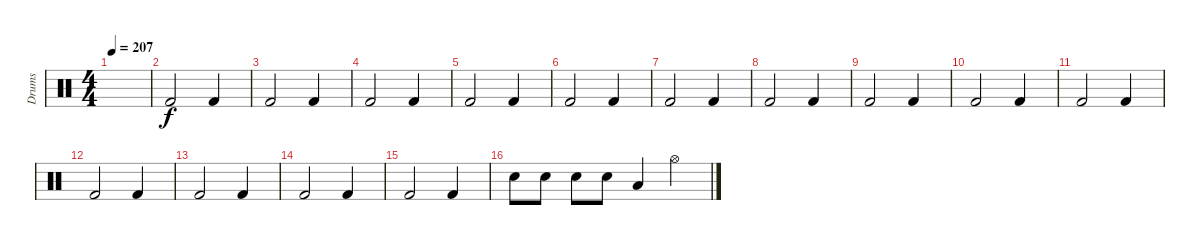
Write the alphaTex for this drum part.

\track ("Drums" "Drums") {instrument percussion}
\staff {score}
\articulation defaults
\ts (4 4)
\tempo 207
\clef neutral
\ks c
|
"Kick (hit) 2".2 "Kick (hit) 2".4 |
"Kick (hit) 2".2 "Kick (hit) 2".4 |
"Kick (hit) 2".2 "Kick (hit) 2".4 |
"Kick (hit) 2".2 "Kick (hit) 2".4 |
"Kick (hit) 2".2 "Kick (hit) 2".4 |
"Kick (hit) 2".2 "Kick (hit) 2".4 |
"Kick (hit) 2".2 "Kick (hit) 2".4 |
"Kick (hit) 2".2 "Kick (hit) 2".4 |
"Kick (hit) 2".2 "Kick (hit) 2".4 |
"Kick (hit) 2".2 "Kick (hit) 2".4 |
"Kick (hit) 2".2 "Kick (hit) 2".4 |
"Kick (hit) 2".2 "Kick (hit) 2".4 |
"Kick (hit) 2".2 "Kick (hit) 2".4 |
"Kick (hit) 2".2 "Kick (hit) 2".4 |
"Snare (hit) 2".8 "Snare (hit) 2".8 "Snare (hit) 2".8 "Snare (hit) 2".8 "Low Floor Tom (hit)".4 "Hi-Hat (open)".4
